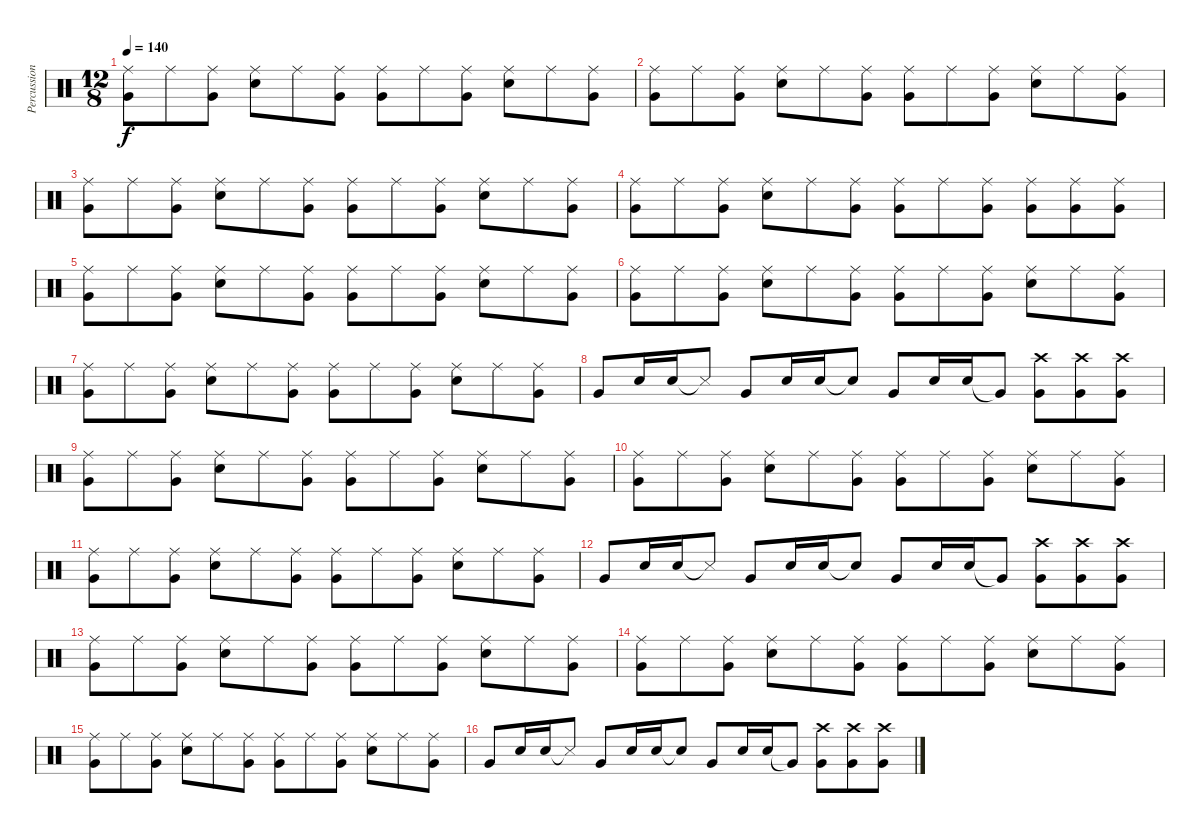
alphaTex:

\track ("Percussion" "Percussion") {instrument percussion}
\staff {score}
\articulation defaults
\ts (12 8)
\tempo 140
\clef neutral
\ks c
("Very Low Tom (hit)" "Ride (middle)").8{dy f} "Ride (middle)".8 ("Very Low Tom (hit)" "Ride (middle)").8 ("Snare (hit) 2" "Ride (middle)").8 "Ride (middle)".8 ("Very Low Tom (hit)" "Ride (middle)").8 ("Very Low Tom (hit)" "Ride (middle)").8 "Ride (middle)".8 ("Very Low Tom (hit)" "Ride (middle)").8 ("Snare (hit) 2" "Ride (middle)").8 "Ride (middle)".8 ("Very Low Tom (hit)" "Ride (middle)").8 |
("Very Low Tom (hit)" "Ride (middle)").8 "Ride (middle)".8 ("Very Low Tom (hit)" "Ride (middle)").8 ("Snare (hit) 2" "Ride (middle)").8 "Ride (middle)".8 ("Very Low Tom (hit)" "Ride (middle)").8 ("Very Low Tom (hit)" "Ride (middle)").8 "Ride (middle)".8 ("Very Low Tom (hit)" "Ride (middle)").8 ("Snare (hit) 2" "Ride (middle)").8 "Ride (middle)".8 ("Very Low Tom (hit)" "Ride (middle)").8 |
("Very Low Tom (hit)" "Ride (middle)").8 "Ride (middle)".8 ("Very Low Tom (hit)" "Ride (middle)").8 ("Snare (hit) 2" "Ride (middle)").8 "Ride (middle)".8 ("Very Low Tom (hit)" "Ride (middle)").8 ("Very Low Tom (hit)" "Ride (middle)").8 "Ride (middle)".8 ("Very Low Tom (hit)" "Ride (middle)").8 ("Snare (hit) 2" "Ride (middle)").8 "Ride (middle)".8 ("Very Low Tom (hit)" "Ride (middle)").8 |
("Very Low Tom (hit)" "Ride (middle)").8 "Ride (middle)".8 ("Very Low Tom (hit)" "Ride (middle)").8 ("Snare (hit) 2" "Ride (middle)").8 "Ride (middle)".8 ("Very Low Tom (hit)" "Ride (middle)").8 ("Very Low Tom (hit)" "Ride (middle)").8 "Ride (middle)".8 ("Very Low Tom (hit)" "Ride (middle)").8 ("Very Low Tom (hit)" "Ride (middle)").8 ("Very Low Tom (hit)" "Ride (middle)").8 ("Very Low Tom (hit)" "Ride (middle)").8 |
("Very Low Tom (hit)" "Ride (middle)").8 "Ride (middle)".8 ("Very Low Tom (hit)" "Ride (middle)").8 ("Snare (hit) 2" "Ride (middle)").8 "Ride (middle)".8 ("Very Low Tom (hit)" "Ride (middle)").8 ("Very Low Tom (hit)" "Ride (middle)").8 "Ride (middle)".8 ("Very Low Tom (hit)" "Ride (middle)").8 ("Snare (hit) 2" "Ride (middle)").8 "Ride (middle)".8 ("Very Low Tom (hit)" "Ride (middle)").8 |
("Very Low Tom (hit)" "Ride (middle)").8 "Ride (middle)".8 ("Very Low Tom (hit)" "Ride (middle)").8 ("Snare (hit) 2" "Ride (middle)").8 "Ride (middle)".8 ("Very Low Tom (hit)" "Ride (middle)").8 ("Very Low Tom (hit)" "Ride (middle)").8 "Ride (middle)".8 ("Very Low Tom (hit)" "Ride (middle)").8 ("Snare (hit) 2" "Ride (middle)").8 "Ride (middle)".8 ("Very Low Tom (hit)" "Ride (middle)").8 |
("Very Low Tom (hit)" "Ride (middle)").8 "Ride (middle)".8 ("Very Low Tom (hit)" "Ride (middle)").8 ("Snare (hit) 2" "Ride (middle)").8 "Ride (middle)".8 ("Very Low Tom (hit)" "Ride (middle)").8 ("Very Low Tom (hit)" "Ride (middle)").8 "Ride (middle)".8 ("Very Low Tom (hit)" "Ride (middle)").8 ("Snare (hit) 2" "Ride (middle)").8 "Ride (middle)".8 ("Very Low Tom (hit)" "Ride (middle)").8 |
"Very Low Tom (hit)".8 "Snare (hit) 2".16 "Snare (hit) 2".16 "Snare (side stick) 3"{t}.8 "Very Low Tom (hit)".8 "Snare (hit) 2".16 "Snare (hit) 2".16 "Snare (hit)"{t}.8 "Very Low Tom (hit)".8 "Snare (hit) 2".16 "Snare (hit) 2".16 "Very Low Tom (hit)"{t}.8 ("Very Low Tom (hit)" "Crash high (hit)").8 ("Very Low Tom (hit)" "Crash high (hit)").8 ("Very Low Tom (hit)" "Crash high (hit)").8 |
("Very Low Tom (hit)" "Ride (middle)").8 "Ride (middle)".8 ("Very Low Tom (hit)" "Ride (middle)").8 ("Snare (hit) 2" "Ride (middle)").8 "Ride (middle)".8 ("Very Low Tom (hit)" "Ride (middle)").8 ("Very Low Tom (hit)" "Ride (middle)").8 "Ride (middle)".8 ("Very Low Tom (hit)" "Ride (middle)").8 ("Snare (hit) 2" "Ride (middle)").8 "Ride (middle)".8 ("Very Low Tom (hit)" "Ride (middle)").8 |
("Very Low Tom (hit)" "Ride (middle)").8 "Ride (middle)".8 ("Very Low Tom (hit)" "Ride (middle)").8 ("Snare (hit) 2" "Ride (middle)").8 "Ride (middle)".8 ("Very Low Tom (hit)" "Ride (middle)").8 ("Very Low Tom (hit)" "Ride (middle)").8 "Ride (middle)".8 ("Very Low Tom (hit)" "Ride (middle)").8 ("Snare (hit) 2" "Ride (middle)").8 "Ride (middle)".8 ("Very Low Tom (hit)" "Ride (middle)").8 |
("Very Low Tom (hit)" "Ride (middle)").8 "Ride (middle)".8 ("Very Low Tom (hit)" "Ride (middle)").8 ("Snare (hit) 2" "Ride (middle)").8 "Ride (middle)".8 ("Very Low Tom (hit)" "Ride (middle)").8 ("Very Low Tom (hit)" "Ride (middle)").8 "Ride (middle)".8 ("Very Low Tom (hit)" "Ride (middle)").8 ("Snare (hit) 2" "Ride (middle)").8 "Ride (middle)".8 ("Very Low Tom (hit)" "Ride (middle)").8 |
"Very Low Tom (hit)".8 "Snare (hit) 2".16 "Snare (hit) 2".16 "Snare (side stick) 3"{t}.8 "Very Low Tom (hit)".8 "Snare (hit) 2".16 "Snare (hit) 2".16 "Snare (hit)"{t}.8 "Very Low Tom (hit)".8 "Snare (hit) 2".16 "Snare (hit) 2".16 "Very Low Tom (hit)"{t}.8 ("Very Low Tom (hit)" "Crash high (hit)").8 ("Very Low Tom (hit)" "Crash high (hit)").8 ("Very Low Tom (hit)" "Crash high (hit)").8 |
("Very Low Tom (hit)" "Ride (middle)").8 "Ride (middle)".8 ("Very Low Tom (hit)" "Ride (middle)").8 ("Snare (hit) 2" "Ride (middle)").8 "Ride (middle)".8 ("Very Low Tom (hit)" "Ride (middle)").8 ("Very Low Tom (hit)" "Ride (middle)").8 "Ride (middle)".8 ("Very Low Tom (hit)" "Ride (middle)").8 ("Snare (hit) 2" "Ride (middle)").8 "Ride (middle)".8 ("Very Low Tom (hit)" "Ride (middle)").8 |
("Very Low Tom (hit)" "Ride (middle)").8 "Ride (middle)".8 ("Very Low Tom (hit)" "Ride (middle)").8 ("Snare (hit) 2" "Ride (middle)").8 "Ride (middle)".8 ("Very Low Tom (hit)" "Ride (middle)").8 ("Very Low Tom (hit)" "Ride (middle)").8 "Ride (middle)".8 ("Very Low Tom (hit)" "Ride (middle)").8 ("Snare (hit) 2" "Ride (middle)").8 "Ride (middle)".8 ("Very Low Tom (hit)" "Ride (middle)").8 |
("Very Low Tom (hit)" "Ride (middle)").8 "Ride (middle)".8 ("Very Low Tom (hit)" "Ride (middle)").8 ("Snare (hit) 2" "Ride (middle)").8 "Ride (middle)".8 ("Very Low Tom (hit)" "Ride (middle)").8 ("Very Low Tom (hit)" "Ride (middle)").8 "Ride (middle)".8 ("Very Low Tom (hit)" "Ride (middle)").8 ("Snare (hit) 2" "Ride (middle)").8 "Ride (middle)".8 ("Very Low Tom (hit)" "Ride (middle)").8 |
"Very Low Tom (hit)".8 "Snare (hit) 2".16 "Snare (hit) 2".16 "Snare (side stick) 3"{t}.8 "Very Low Tom (hit)".8 "Snare (hit) 2".16 "Snare (hit) 2".16 "Snare (hit)"{t}.8 "Very Low Tom (hit)".8 "Snare (hit) 2".16 "Snare (hit) 2".16 "Very Low Tom (hit)"{t}.8 ("Very Low Tom (hit)" "Crash high (hit)").8 ("Very Low Tom (hit)" "Crash high (hit)").8 ("Very Low Tom (hit)" "Crash high (hit)").8
